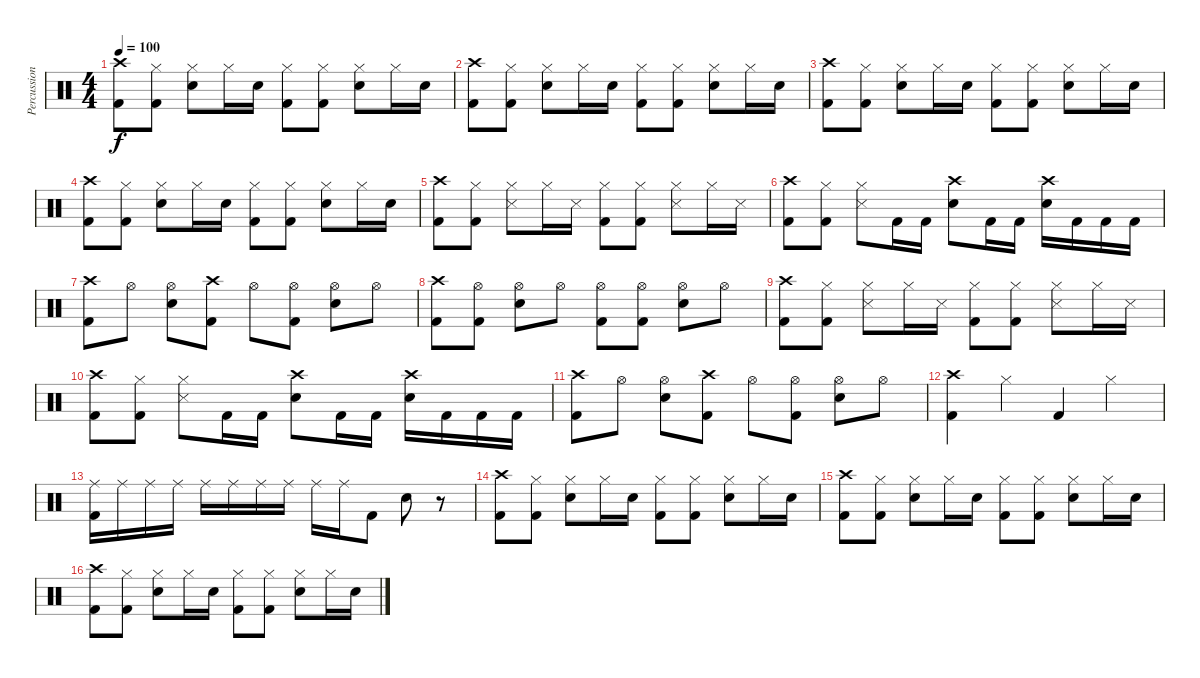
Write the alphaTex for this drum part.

\track ("Percussion" "Percussion") {instrument percussion}
\staff {score}
\articulation defaults
\ts (4 4)
\tempo 100
\clef neutral
\ks c
("Crash high (hit)" "Kick (hit) 2").8{dy f} ("Hi-Hat (closed)" "Kick (hit) 2").8 ("Hi-Hat (closed)" "Snare (hit) 2").8 "Hi-Hat (closed)".16 "Snare (hit) 2".16 ("Hi-Hat (closed)" "Kick (hit) 2").8 ("Hi-Hat (closed)" "Kick (hit) 2").8 ("Hi-Hat (closed)" "Snare (hit) 2").8 "Hi-Hat (closed)".16 "Snare (hit) 2".16 |
("Crash high (hit)" "Kick (hit) 2").8 ("Hi-Hat (closed)" "Kick (hit) 2").8 ("Hi-Hat (closed)" "Snare (hit) 2").8 "Hi-Hat (closed)".16 "Snare (hit) 2".16 ("Hi-Hat (closed)" "Kick (hit) 2").8 ("Hi-Hat (closed)" "Kick (hit) 2").8 ("Hi-Hat (closed)" "Snare (hit) 2").8 "Hi-Hat (closed)".16 "Snare (hit) 2".16 |
("Crash high (hit)" "Kick (hit) 2").8 ("Hi-Hat (closed)" "Kick (hit) 2").8 ("Hi-Hat (closed)" "Snare (hit) 2").8 "Hi-Hat (closed)".16 "Snare (hit) 2".16 ("Hi-Hat (closed)" "Kick (hit) 2").8 ("Hi-Hat (closed)" "Kick (hit) 2").8 ("Hi-Hat (closed)" "Snare (hit) 2").8 "Hi-Hat (closed)".16 "Snare (hit) 2".16 |
("Crash high (hit)" "Kick (hit) 2").8 ("Hi-Hat (closed)" "Kick (hit) 2").8 ("Hi-Hat (closed)" "Snare (hit) 2").8 "Hi-Hat (closed)".16 "Snare (hit) 2".16 ("Hi-Hat (closed)" "Kick (hit) 2").8 ("Hi-Hat (closed)" "Kick (hit) 2").8 ("Hi-Hat (closed)" "Snare (hit) 2").8 "Hi-Hat (closed)".16 "Snare (hit) 2".16 |
("Crash high (hit)" "Kick (hit) 2").8 ("Hi-Hat (closed)" "Kick (hit) 2").8 ("Hi-Hat (closed)" "Snare (side stick) 3").8 "Hi-Hat (closed)".16 "Snare (side stick) 3".16 ("Hi-Hat (closed)" "Kick (hit) 2").8 ("Hi-Hat (closed)" "Kick (hit) 2").8 ("Hi-Hat (closed)" "Snare (side stick) 3").8 "Hi-Hat (closed)".16 "Snare (side stick) 3".16 |
("Crash high (hit)" "Kick (hit) 2").8 ("Hi-Hat (closed)" "Kick (hit) 2").8 ("Hi-Hat (closed)" "Snare (side stick) 3").8 "Kick (hit) 2".16 "Kick (hit) 2".16 ("Crash high (hit)" "Snare (hit) 2").8 "Kick (hit) 2".16 "Kick (hit) 2".16 ("Crash high (hit)" "Snare (hit) 2").16 "Kick (hit) 2".16 "Kick (hit) 2".16 "Kick (hit) 2".16 |
("Crash high (hit)" "Kick (hit) 2").8 "Hi-Hat (open)".8 ("Hi-Hat (open)" "Snare (hit) 2").8 ("Crash high (hit)" "Kick (hit) 2").8 "Hi-Hat (open)".8 ("Hi-Hat (open)" "Kick (hit) 2").8 ("Hi-Hat (open)" "Snare (hit) 2").8 "Hi-Hat (open)".8 |
("Crash high (hit)" "Kick (hit) 2").8 ("Hi-Hat (open)" "Kick (hit) 2").8 ("Hi-Hat (open)" "Snare (hit) 2").8 "Hi-Hat (open)".8 ("Hi-Hat (open)" "Kick (hit) 2").8 ("Hi-Hat (open)" "Kick (hit) 2").8 ("Hi-Hat (open)" "Snare (hit) 2").8 "Hi-Hat (open)".8 |
("Crash high (hit)" "Kick (hit) 2").8 ("Hi-Hat (closed)" "Kick (hit) 2").8 ("Hi-Hat (closed)" "Snare (side stick) 3").8 "Hi-Hat (closed)".16 "Snare (side stick) 3".16 ("Hi-Hat (closed)" "Kick (hit) 2").8 ("Hi-Hat (closed)" "Kick (hit) 2").8 ("Hi-Hat (closed)" "Snare (side stick) 3").8 "Hi-Hat (closed)".16 "Snare (side stick) 3".16 |
("Crash high (hit)" "Kick (hit) 2").8 ("Hi-Hat (closed)" "Kick (hit) 2").8 ("Hi-Hat (closed)" "Snare (side stick) 3").8 "Kick (hit) 2".16 "Kick (hit) 2".16 ("Crash high (hit)" "Snare (hit) 2").8 "Kick (hit) 2".16 "Kick (hit) 2".16 ("Crash high (hit)" "Snare (hit) 2").16 "Kick (hit) 2".16 "Kick (hit) 2".16 "Kick (hit) 2".16 |
("Crash high (hit)" "Kick (hit) 2").8 "Hi-Hat (open)".8 ("Hi-Hat (open)" "Snare (hit) 2").8 ("Crash high (hit)" "Kick (hit) 2").8 "Hi-Hat (open)".8 ("Hi-Hat (open)" "Kick (hit) 2").8 ("Hi-Hat (open)" "Snare (hit) 2").8 "Hi-Hat (open)".8 |
("Crash high (hit)" "Kick (hit) 2").4 "Hi-Hat (closed)".4 "Kick (hit) 2".4 "Hi-Hat (closed)".4 |
("Ride (middle)" "Kick (hit) 2").16 "Ride (middle)".16 "Ride (middle)".16 "Ride (middle)".16 "Ride (middle)".16 "Ride (middle)".16 "Ride (middle)".16 "Ride (middle)".16 "Ride (middle)".16 "Ride (middle)".16 "Kick (hit) 2".8 "Snare (hit) 2".8 r.8 |
("Crash high (hit)" "Kick (hit) 2").8 ("Hi-Hat (closed)" "Kick (hit) 2").8 ("Hi-Hat (closed)" "Snare (hit) 2").8 "Hi-Hat (closed)".16 "Snare (hit) 2".16 ("Hi-Hat (closed)" "Kick (hit) 2").8 ("Hi-Hat (closed)" "Kick (hit) 2").8 ("Hi-Hat (closed)" "Snare (hit) 2").8 "Hi-Hat (closed)".16 "Snare (hit) 2".16 |
("Crash high (hit)" "Kick (hit) 2").8 ("Hi-Hat (closed)" "Kick (hit) 2").8 ("Hi-Hat (closed)" "Snare (hit) 2").8 "Hi-Hat (closed)".16 "Snare (hit) 2".16 ("Hi-Hat (closed)" "Kick (hit) 2").8 ("Hi-Hat (closed)" "Kick (hit) 2").8 ("Hi-Hat (closed)" "Snare (hit) 2").8 "Hi-Hat (closed)".16 "Snare (hit) 2".16 |
("Crash high (hit)" "Kick (hit) 2").8 ("Hi-Hat (closed)" "Kick (hit) 2").8 ("Hi-Hat (closed)" "Snare (hit) 2").8 "Hi-Hat (closed)".16 "Snare (hit) 2".16 ("Hi-Hat (closed)" "Kick (hit) 2").8 ("Hi-Hat (closed)" "Kick (hit) 2").8 ("Hi-Hat (closed)" "Snare (hit) 2").8 "Hi-Hat (closed)".16 "Snare (hit) 2".16
